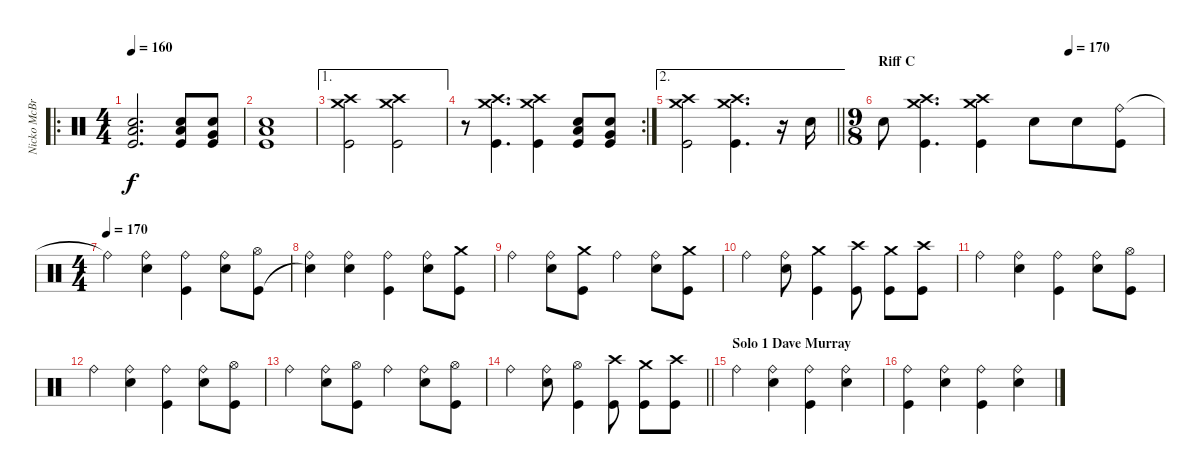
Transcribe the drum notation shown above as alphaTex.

\track ("Nicko McBrain" "Nicko McBr") {instrument percussion}
\staff {score}
\articulation defaults
\ro
\ts (4 4)
\tempo 160
\clef neutral
\ks c
("Low Floor Tom (hit)" "Snare (hit) 2" "Kick (hit)").2{d dy f} ("Low Floor Tom (hit)" "Snare (hit) 2" "Kick (hit)").8 ("Very Low Tom (hit)" "Snare (hit) 2" "Kick (hit)").8 |
("Low Floor Tom (hit)" "Snare (hit) 2" "Kick (hit)").1 |
\ae 1
("Crash medium (hit)" "Crash high (hit)" "Kick (hit)").2 ("Crash medium (hit)" "Crash high (hit)" "Kick (hit)").2 |
\rc 2
r.8 ("Crash medium (hit)" "Crash high (hit)" "Kick (hit)").4{d} ("Crash medium (hit)" "Crash high (hit)" "Kick (hit)").4 ("Low Floor Tom (hit)" "Snare (hit) 2" "Kick (hit)").8 ("Very Low Tom (hit)" "Snare (hit) 2" "Kick (hit)").8 |
\ae 2
\barLineRight lightlight
("Crash medium (hit)" "Crash high (hit)" "Kick (hit)").2 ("Crash medium (hit)" "Crash high (hit)" "Kick (hit)").4{d} r.16 "Snare (hit) 2".16 |
\ts (9 8)
\section ("" "Riff C")
\tempo (170 0.6666666666666666)
"Snare (hit) 2".8 ("Crash medium (hit)" "Crash high (hit)" "Kick (hit)").4{d} ("Crash medium (hit)" "Crash high (hit)" "Kick (hit)").4 "Snare (hit) 2".8 "Snare (hit) 2".8 ("Ride (bell)" "Kick (hit)").8 |
\ts (4 4)
\tempo (170)
"Ride (bell)"{t}.4 ("Ride (bell)" "Snare (hit) 2").4 ("Ride (bell)" "Kick (hit)").4 ("Ride (bell)" "Snare (hit) 2").8 ("Hi-Hat (open)" "Kick (hit)").8 |
("Ride (bell)" "Snare (hit)"{t}).4 ("Ride (bell)" "Snare (hit) 2").4 ("Ride (bell)" "Kick (hit)").4 ("Ride (bell)" "Snare (hit) 2").8 ("Crash medium (hit)" "Kick (hit)").8 |
"Ride (bell)".4 ("Ride (bell)" "Snare (hit) 2").8 ("Crash medium (hit)" "Kick (hit)").8 "Ride (bell)".4 ("Ride (bell)" "Snare (hit) 2").8 ("Crash medium (hit)" "Kick (hit)").8 |
"Ride (bell)".4 ("Ride (bell)" "Snare (hit) 2").8 ("Crash medium (hit)" "Kick (hit)").4 ("Crash high (hit)" "Kick (hit)").8 ("Crash medium (hit)" "Kick (hit)").8 ("Crash high (hit)" "Kick (hit)").8 |
"Ride (bell)".4 ("Ride (bell)" "Snare (hit) 2").4 ("Ride (bell)" "Kick (hit)").4 ("Ride (bell)" "Snare (hit) 2").8 ("Hi-Hat (open)" "Kick (hit)").8 |
"Ride (bell)".4 ("Ride (bell)" "Snare (hit) 2").4 ("Ride (bell)" "Kick (hit)").4 ("Ride (bell)" "Snare (hit) 2").8 ("Hi-Hat (open)" "Kick (hit)").8 |
"Ride (bell)".4 ("Ride (bell)" "Snare (hit) 2").8 ("Hi-Hat (open)" "Kick (hit)").8 "Ride (bell)".4 ("Ride (bell)" "Snare (hit) 2").8 ("Hi-Hat (open)" "Kick (hit)").8 |
\barLineRight lightlight "Ride (bell)".4
("Ride (bell)" "Snare (hit) 2").8 ("Hi-Hat (open)" "Kick (hit)").4 ("Crash high (hit)" "Kick (hit)").8 ("Crash medium (hit)" "Kick (hit)").8 ("Crash high (hit)" "Kick (hit)").8 |
\section ("" "Solo 1 Dave Murray")
"Ride (bell)".4 ("Ride (bell)" "Snare (hit) 2").4 ("Ride (bell)" "Kick (hit)").4 ("Ride (bell)" "Snare (hit) 2").4 |
("Ride (bell)" "Kick (hit)").4 ("Ride (bell)" "Snare (hit) 2").4 ("Ride (bell)" "Kick (hit)").4 ("Ride (bell)" "Snare (hit) 2").4
